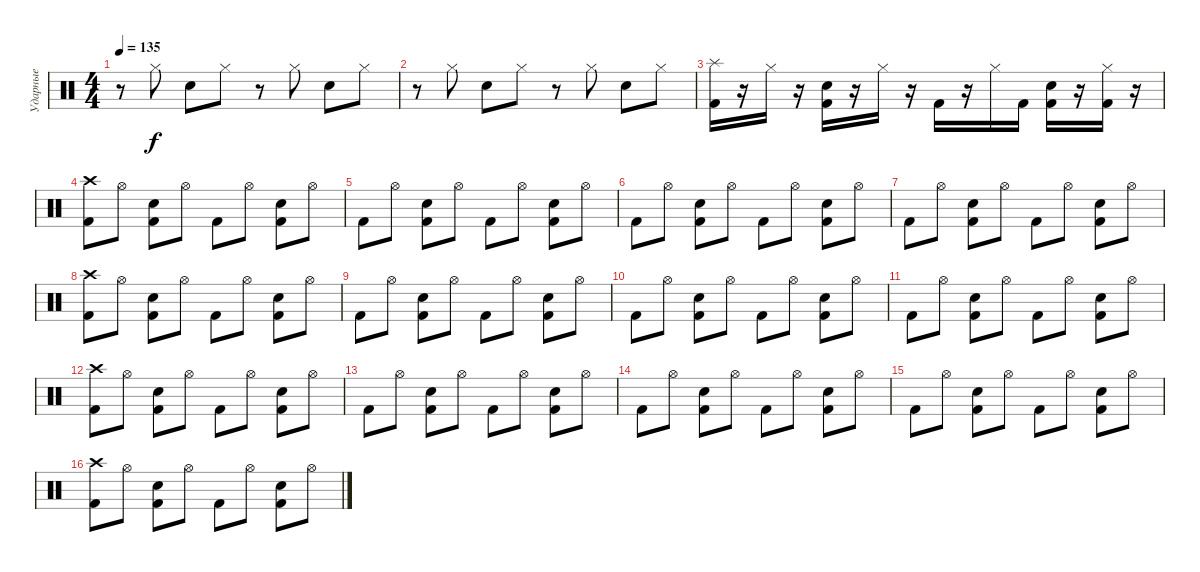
\track ("Ударные" "Ударные") {instrument percussion}
\staff {score}
\articulation defaults
\ts (4 4)
\tempo 135
\clef neutral
\ks c
r.8{dy f} "Hi-Hat (closed)".8 "Hand Clap (hit)".8 "Hi-Hat (closed)".8 r.8 "Hi-Hat (closed)".8 "Hand Clap (hit)".8 "Hi-Hat (closed)".8 |
r.8 "Hi-Hat (closed)".8 "Hand Clap (hit)".8 "Hi-Hat (closed)".8 r.8 "Hi-Hat (closed)".8 "Hand Clap (hit)".8 "Hi-Hat (closed)".8 |
("Kick (hit) 2" "Splash (hit)").16 r.16 "Hi-Hat (closed)".16 r.16 ("Kick (hit) 2" "Hand Clap (hit)").16 r.16 "Hi-Hat (closed)".16 r.16 "Kick (hit) 2".16 r.16 "Hi-Hat (closed)".16 "Kick (hit) 2".16 ("Kick (hit) 2" "Hand Clap (hit)").16 r.16 ("Kick (hit) 2" "Hi-Hat (closed)").16 r.16 |
("Kick (hit) 2" "Crash high (hit)").8 "Hi-Hat (open)".8 ("Kick (hit) 2" "Snare (hit) 2").8 "Hi-Hat (open)".8 "Kick (hit) 2".8 "Hi-Hat (open)".8 ("Kick (hit) 2" "Snare (hit) 2").8 "Hi-Hat (open)".8 |
"Kick (hit) 2".8 "Hi-Hat (open)".8 ("Kick (hit) 2" "Snare (hit) 2").8 "Hi-Hat (open)".8 "Kick (hit) 2".8 "Hi-Hat (open)".8 ("Kick (hit) 2" "Snare (hit) 2").8 "Hi-Hat (open)".8 |
"Kick (hit) 2".8 "Hi-Hat (open)".8 ("Kick (hit) 2" "Snare (hit) 2").8 "Hi-Hat (open)".8 "Kick (hit) 2".8 "Hi-Hat (open)".8 ("Kick (hit) 2" "Snare (hit) 2").8 "Hi-Hat (open)".8 |
"Kick (hit) 2".8 "Hi-Hat (open)".8 ("Kick (hit) 2" "Snare (hit) 2").8 "Hi-Hat (open)".8 "Kick (hit) 2".8 "Hi-Hat (open)".8 ("Kick (hit) 2" "Snare (hit) 2").8 "Hi-Hat (open)".8 |
("Kick (hit) 2" "Crash high (hit)").8 "Hi-Hat (open)".8 ("Kick (hit) 2" "Snare (hit) 2").8 "Hi-Hat (open)".8 "Kick (hit) 2".8 "Hi-Hat (open)".8 ("Kick (hit) 2" "Snare (hit) 2").8 "Hi-Hat (open)".8 |
"Kick (hit) 2".8 "Hi-Hat (open)".8 ("Kick (hit) 2" "Snare (hit) 2").8 "Hi-Hat (open)".8 "Kick (hit) 2".8 "Hi-Hat (open)".8 ("Kick (hit) 2" "Snare (hit) 2").8 "Hi-Hat (open)".8 |
"Kick (hit) 2".8 "Hi-Hat (open)".8 ("Kick (hit) 2" "Snare (hit) 2").8 "Hi-Hat (open)".8 "Kick (hit) 2".8 "Hi-Hat (open)".8 ("Kick (hit) 2" "Snare (hit) 2").8 "Hi-Hat (open)".8 |
"Kick (hit) 2".8 "Hi-Hat (open)".8 ("Kick (hit) 2" "Snare (hit) 2").8 "Hi-Hat (open)".8 "Kick (hit) 2".8 "Hi-Hat (open)".8 ("Kick (hit) 2" "Snare (hit) 2").8 "Hi-Hat (open)".8 |
("Kick (hit) 2" "Crash high (hit)").8 "Hi-Hat (open)".8 ("Kick (hit) 2" "Snare (hit) 2").8 "Hi-Hat (open)".8 "Kick (hit) 2".8 "Hi-Hat (open)".8 ("Kick (hit) 2" "Snare (hit) 2").8 "Hi-Hat (open)".8 |
"Kick (hit) 2".8 "Hi-Hat (open)".8 ("Kick (hit) 2" "Snare (hit) 2").8 "Hi-Hat (open)".8 "Kick (hit) 2".8 "Hi-Hat (open)".8 ("Kick (hit) 2" "Snare (hit) 2").8 "Hi-Hat (open)".8 |
"Kick (hit) 2".8 "Hi-Hat (open)".8 ("Kick (hit) 2" "Snare (hit) 2").8 "Hi-Hat (open)".8 "Kick (hit) 2".8 "Hi-Hat (open)".8 ("Kick (hit) 2" "Snare (hit) 2").8 "Hi-Hat (open)".8 |
"Kick (hit) 2".8 "Hi-Hat (open)".8 ("Kick (hit) 2" "Snare (hit) 2").8 "Hi-Hat (open)".8 "Kick (hit) 2".8 "Hi-Hat (open)".8 ("Kick (hit) 2" "Snare (hit) 2").8 "Hi-Hat (open)".8 |
("Kick (hit) 2" "Crash high (hit)").8 "Hi-Hat (open)".8 ("Kick (hit) 2" "Snare (hit) 2").8 "Hi-Hat (open)".8 "Kick (hit) 2".8 "Hi-Hat (open)".8 ("Kick (hit) 2" "Snare (hit) 2").8 "Hi-Hat (open)".8
